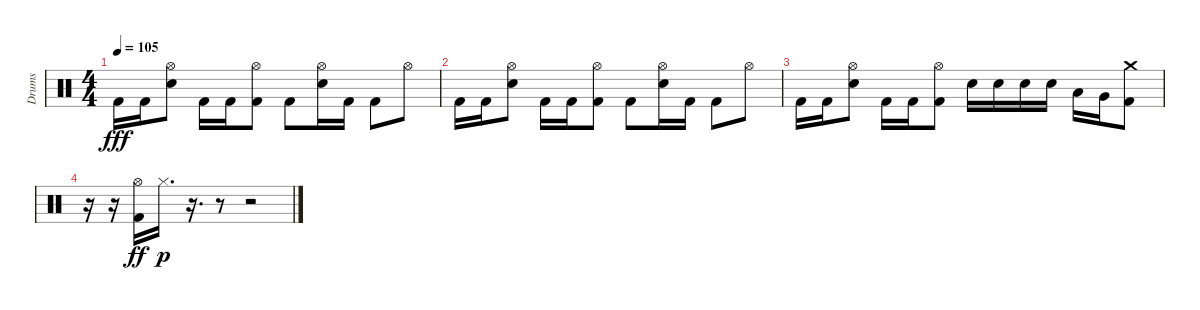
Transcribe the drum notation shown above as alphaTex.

\track ("Drums" "Drums") {instrument percussion}
\staff {score}
\articulation defaults
\ts (4 4)
\tempo 105
\clef neutral
\ks c "Kick (hit) 2".16{dy fff} "Kick (hit) 2".16
("Hi-Hat (open)" "Snare (hit) 2").8 "Kick (hit) 2".16 "Kick (hit) 2".16 ("Hi-Hat (open)" "Kick (hit) 2").8 "Kick (hit) 2".8 ("Hi-Hat (open)" "Snare (hit) 2").16 "Kick (hit) 2".16 "Kick (hit) 2".8 "Hi-Hat (open)".8 |
"Kick (hit) 2".16 "Kick (hit) 2".16 ("Hi-Hat (open)" "Snare (hit) 2").8 "Kick (hit) 2".16 "Kick (hit) 2".16 ("Hi-Hat (open)" "Kick (hit) 2").8 "Kick (hit) 2".8 ("Hi-Hat (open)" "Snare (hit) 2").16 "Kick (hit) 2".16 "Kick (hit) 2".8 "Hi-Hat (open)".8 |
"Kick (hit) 2".16 "Kick (hit) 2".16 ("Hi-Hat (open)" "Snare (hit) 2").8 "Kick (hit) 2".16 "Kick (hit) 2".16 ("Hi-Hat (open)" "Kick (hit) 2").8 "Snare (hit) 2".16 "Snare (hit) 2".16 "Snare (hit) 2".16 "Snare (hit) 2".16 "Low Tom (hit)".16 "Very Low Tom (hit)".16 ("Crash medium (hit)" "Kick (hit) 2").8 |
r.16 r.16 ("Hi-Hat (open)" "Kick (hit) 2").16{dy ff} "Hi-Hat (closed)".16{d dy p} r.16{d} r.8 r.2
